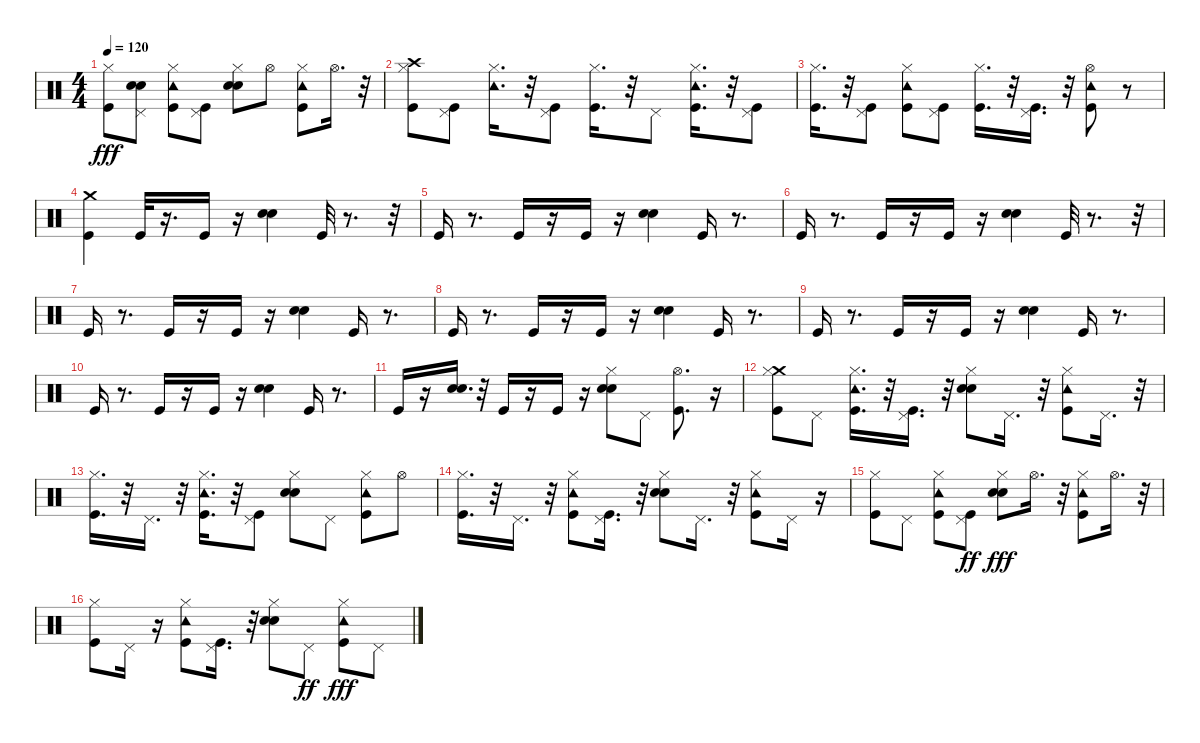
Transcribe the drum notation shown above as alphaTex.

\track "" {instrument percussion}
\staff {score}
\articulation defaults
\ts (4 4)
\tempo 120
\clef neutral
\ks c
("Hi-Hat (closed)" "Kick (hit)").8{dy fff} ("Pedal Hi-Hat (hit)" "Hand Clap (hit)" "Snare (hit) 2").8 ("Tambourine (hit)" "Hi-Hat (closed)" "Kick (hit)").8 ("Pedal Hi-Hat (hit)" "Kick (hit)").8 ("Hi-Hat (closed)" "Hand Clap (hit)" "Snare (hit) 2").8 "Hi-Hat (open)".8 ("Tambourine (hit)" "Hi-Hat (closed)" "Kick (hit)").8 "Hi-Hat (open)".16{d} r.32 |
("Crash high (hit)" "Hi-Hat (closed)" "Kick (hit)").8 ("Pedal Hi-Hat (hit)" "Kick (hit)").8 ("Hi-Hat (closed)" "Tambourine (hit)").16{d} r.32 ("Pedal Hi-Hat (hit)" "Kick (hit)").8 ("Hi-Hat (closed)" "Kick (hit)").16{d} r.32 "Pedal Hi-Hat (hit)".8 ("Tambourine (hit)" "Kick (hit)" "Hi-Hat (closed)").16{d} r.32 ("Pedal Hi-Hat (hit)" "Kick (hit)").8 |
("Kick (hit)" "Hi-Hat (closed)").16{d} r.32 ("Pedal Hi-Hat (hit)" "Kick (hit)").8 ("Tambourine (hit)" "Kick (hit)" "Hi-Hat (closed)").8 ("Kick (hit)" "Pedal Hi-Hat (hit)").8 ("Hi-Hat (closed)" "Kick (hit)").16{d} r.32 ("Pedal Hi-Hat (hit)" "Kick (hit)").16{d} r.32 ("Hi-Hat (open)" "Kick (hit)" "Tambourine (hit)").8 r.8 |
("Crash medium (hit)" "Kick (hit)").4 "Kick (hit)".32 r.16{d} "Kick (hit)".16 r.16 ("Hand Clap (hit)" "Snare (hit) 2").4 "Kick (hit)".32 r.8{d} r.32 |
"Kick (hit)".16 r.8{d} "Kick (hit)".16 r.16 "Kick (hit)".16 r.16 ("Hand Clap (hit)" "Snare (hit) 2").4 "Kick (hit)".16 r.8{d} |
"Kick (hit)".16 r.8{d} "Kick (hit)".16 r.16 "Kick (hit)".16 r.16 ("Hand Clap (hit)" "Snare (hit) 2").4 "Kick (hit)".32 r.8{d} r.32 |
"Kick (hit)".16 r.8{d} "Kick (hit)".16 r.16 "Kick (hit)".16 r.16 ("Hand Clap (hit)" "Snare (hit) 2").4 "Kick (hit)".16 r.8{d} |
"Kick (hit)".16 r.8{d} "Kick (hit)".16 r.16 "Kick (hit)".16 r.16 ("Hand Clap (hit)" "Snare (hit) 2").4 "Kick (hit)".16 r.8{d} |
"Kick (hit)".16 r.8{d} "Kick (hit)".16 r.16 "Kick (hit)".16 r.16 ("Hand Clap (hit)" "Snare (hit) 2").4 "Kick (hit)".16 r.8{d} |
"Kick (hit)".16 r.8{d} "Kick (hit)".16 r.16 "Kick (hit)".16 r.16 ("Hand Clap (hit)" "Snare (hit) 2").4 "Kick (hit)".16 r.8{d} |
"Kick (hit)".16 r.16 ("Hand Clap (hit)" "Snare (hit) 2").16{d} r.32 "Kick (hit)".16 r.16 "Kick (hit)".16 r.16 ("Hi-Hat (closed)" "Hand Clap (hit)" "Snare (hit) 2").8 "Pedal Hi-Hat (hit)".8 ("Kick (hit)" "Hi-Hat (open)").8{d} r.16 |
("Crash medium (hit)" "Kick (hit)" "Hi-Hat (closed)").8 "Pedal Hi-Hat (hit)".8 ("Hi-Hat (closed)" "Kick (hit)" "Tambourine (hit)").16{d} r.32 ("Pedal Hi-Hat (hit)" "Kick (hit)").16{d} r.32 ("Hand Clap (hit)" "Hi-Hat (closed)" "Snare (hit) 2").8 "Pedal Hi-Hat (hit)".16{d} r.32 ("Hi-Hat (closed)" "Kick (hit)" "Tambourine (hit)").8 "Pedal Hi-Hat (hit)".16{d} r.32 |
("Hi-Hat (closed)" "Kick (hit)").16{d} r.32 "Pedal Hi-Hat (hit)".16{d} r.32 ("Hi-Hat (closed)" "Kick (hit)" "Tambourine (hit)").16{d} r.32 ("Pedal Hi-Hat (hit)" "Kick (hit)").8 ("Hi-Hat (closed)" "Hand Clap (hit)" "Snare (hit) 2").8 "Pedal Hi-Hat (hit)".8 ("Hi-Hat (closed)" "Kick (hit)" "Tambourine (hit)").8 "Hi-Hat (open)".8 |
("Hi-Hat (closed)" "Kick (hit)").16{d} r.32 "Pedal Hi-Hat (hit)".16{d} r.32 ("Tambourine (hit)" "Kick (hit)" "Hi-Hat (closed)").8 ("Pedal Hi-Hat (hit)" "Kick (hit)").16{d} r.32 ("Hi-Hat (closed)" "Hand Clap (hit)" "Snare (hit) 2").8 "Pedal Hi-Hat (hit)".16{d} r.32 ("Tambourine (hit)" "Hi-Hat (closed)" "Kick (hit)").8 "Pedal Hi-Hat (hit)".16 r.16 |
("Kick (hit)" "Hi-Hat (closed)").8 "Pedal Hi-Hat (hit)".8 ("Tambourine (hit)" "Hi-Hat (closed)" "Kick (hit)").8 ("Kick (hit)" "Pedal Hi-Hat (hit)").8{dy ff} ("Hi-Hat (closed)" "Hand Clap (hit)" "Snare (hit) 2").8{dy fff} "Hi-Hat (open)".16{d} r.32 ("Hi-Hat (closed)" "Kick (hit)" "Tambourine (hit)").8 "Hi-Hat (open)".16{d} r.32 |
("Kick (hit)" "Hi-Hat (closed)").8 "Pedal Hi-Hat (hit)".16 r.16 ("Kick (hit)" "Hi-Hat (closed)" "Tambourine (hit)").8 ("Kick (hit)" "Pedal Hi-Hat (hit)").16{d} r.32 ("Hand Clap (hit)" "Hi-Hat (closed)" "Snare (hit) 2").8 "Pedal Hi-Hat (hit)".8{dy ff} ("Hi-Hat (closed)" "Kick (hit)" "Tambourine (hit)").8{dy fff} "Pedal Hi-Hat (hit)".8
